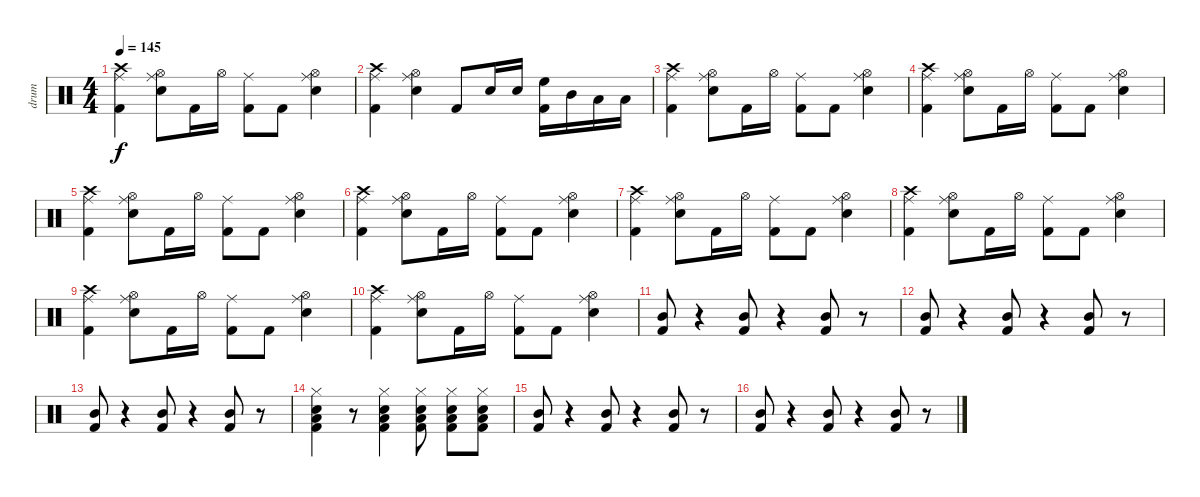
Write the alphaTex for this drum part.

\track ("drum" "drum") {instrument percussion}
\staff {score}
\articulation defaults
\ts (4 4)
\tempo 145
\clef neutral
\ks c
("Crash high (hit)" "Ride (middle)" "Kick (hit) 2").4{dy f} ("Snare (hit) 2" "Ride (middle)" "Hi-Hat (open)").8 "Kick (hit) 2".16 "Hi-Hat (open)".16 ("Ride (middle)" "Kick (hit) 2").8 "Kick (hit) 2".8 ("Snare (hit) 2" "Ride (middle)" "Hi-Hat (open)").4 |
("Crash high (hit)" "Ride (middle)" "Kick (hit) 2").4 ("Snare (hit) 2" "Ride (middle)" "Hi-Hat (open)").4 "Kick (hit) 2".8 "Snare (hit) 2".16 "Snare (hit) 2".16 ("High Floor Tom (hit)" "Kick (hit) 2").16 "Mid Tom (hit)".16 "Low Tom (hit)".16 "Low Tom (hit)".16 |
("Crash high (hit)" "Ride (middle)" "Kick (hit) 2").4 ("Snare (hit) 2" "Ride (middle)" "Hi-Hat (open)").8 "Kick (hit) 2".16 "Hi-Hat (open)".16 ("Ride (middle)" "Kick (hit) 2").8 "Kick (hit) 2".8 ("Snare (hit) 2" "Ride (middle)" "Hi-Hat (open)").4 |
("Crash high (hit)" "Ride (middle)" "Kick (hit) 2").4 ("Snare (hit) 2" "Ride (middle)" "Hi-Hat (open)").8 "Kick (hit) 2".16 "Hi-Hat (open)".16 ("Ride (middle)" "Kick (hit) 2").8 "Kick (hit) 2".8 ("Snare (hit) 2" "Ride (middle)" "Hi-Hat (open)").4 |
("Crash high (hit)" "Ride (middle)" "Kick (hit) 2").4 ("Snare (hit) 2" "Ride (middle)" "Hi-Hat (open)").8 "Kick (hit) 2".16 "Hi-Hat (open)".16 ("Ride (middle)" "Kick (hit) 2").8 "Kick (hit) 2".8 ("Snare (hit) 2" "Ride (middle)" "Hi-Hat (open)").4 |
("Crash high (hit)" "Ride (middle)" "Kick (hit) 2").4 ("Snare (hit) 2" "Ride (middle)" "Hi-Hat (open)").8 "Kick (hit) 2".16 "Hi-Hat (open)".16 ("Ride (middle)" "Kick (hit) 2").8 "Kick (hit) 2".8 ("Snare (hit) 2" "Ride (middle)" "Hi-Hat (open)").4 |
("Crash high (hit)" "Ride (middle)" "Kick (hit) 2").4 ("Snare (hit) 2" "Ride (middle)" "Hi-Hat (open)").8 "Kick (hit) 2".16 "Hi-Hat (open)".16 ("Ride (middle)" "Kick (hit) 2").8 "Kick (hit) 2".8 ("Snare (hit) 2" "Ride (middle)" "Hi-Hat (open)").4 |
("Crash high (hit)" "Ride (middle)" "Kick (hit) 2").4 ("Snare (hit) 2" "Ride (middle)" "Hi-Hat (open)").8 "Kick (hit) 2".16 "Hi-Hat (open)".16 ("Ride (middle)" "Kick (hit) 2").8 "Kick (hit) 2".8 ("Snare (hit) 2" "Ride (middle)" "Hi-Hat (open)").4 |
("Crash high (hit)" "Ride (middle)" "Kick (hit) 2").4 ("Snare (hit) 2" "Ride (middle)" "Hi-Hat (open)").8 "Kick (hit) 2".16 "Hi-Hat (open)".16 ("Ride (middle)" "Kick (hit) 2").8 "Kick (hit) 2".8 ("Snare (hit) 2" "Ride (middle)" "Hi-Hat (open)").4 |
("Crash high (hit)" "Ride (middle)" "Kick (hit) 2").4 ("Snare (hit) 2" "Ride (middle)" "Hi-Hat (open)").8 "Kick (hit) 2".16 "Hi-Hat (open)".16 ("Ride (middle)" "Kick (hit) 2").8 "Kick (hit) 2".8 ("Snare (hit) 2" "Ride (middle)" "Hi-Hat (open)").4 |
("Mid Tom (hit)" "Kick (hit) 2").8 r.4 ("Mid Tom (hit)" "Kick (hit) 2").8 r.4 ("Mid Tom (hit)" "Kick (hit) 2").8 r.8 |
("Mid Tom (hit)" "Kick (hit) 2").8 r.4 ("Mid Tom (hit)" "Kick (hit) 2").8 r.4 ("Mid Tom (hit)" "Kick (hit) 2").8 r.8 |
("Mid Tom (hit)" "Kick (hit) 2").8 r.4 ("Mid Tom (hit)" "Kick (hit) 2").8 r.4 ("Mid Tom (hit)" "Kick (hit) 2").8 r.8 |
("Snare (hit) 2" "Low Tom (hit)" "Hi-Hat (closed)" "Kick (hit) 2").4 r.8 ("Snare (hit) 2" "Low Tom (hit)" "Hi-Hat (closed)" "Kick (hit) 2").4 ("Snare (hit) 2" "Low Tom (hit)" "Hi-Hat (closed)" "Kick (hit) 2").8 ("Snare (hit) 2" "Low Tom (hit)" "Hi-Hat (closed)" "Kick (hit) 2").8 ("Snare (hit) 2" "Low Tom (hit)" "Hi-Hat (closed)" "Kick (hit) 2").8 |
("Mid Tom (hit)" "Kick (hit) 2").8 r.4 ("Mid Tom (hit)" "Kick (hit) 2").8 r.4 ("Mid Tom (hit)" "Kick (hit) 2").8 r.8 |
("Mid Tom (hit)" "Kick (hit) 2").8 r.4 ("Mid Tom (hit)" "Kick (hit) 2").8 r.4 ("Mid Tom (hit)" "Kick (hit) 2").8 r.8
